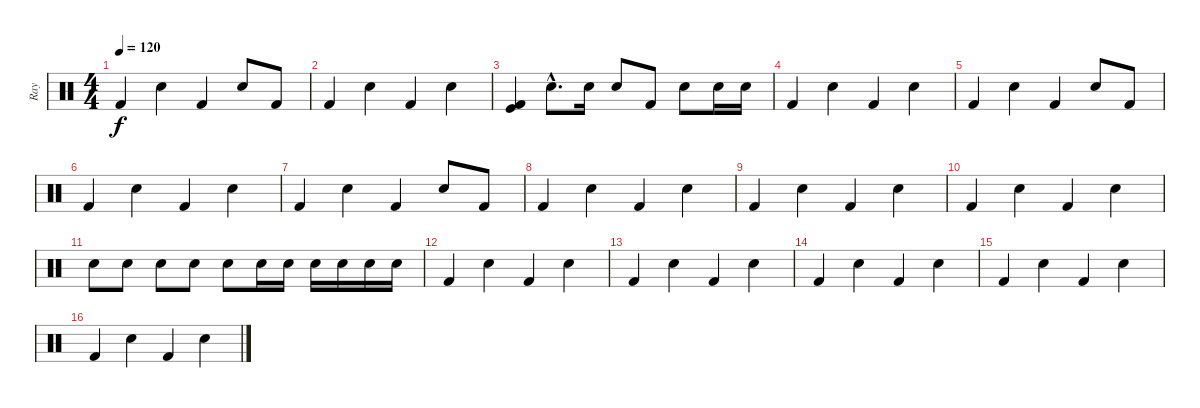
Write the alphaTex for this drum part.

\track ("Ray" "Ray") {instrument percussion}
\staff {score}
\articulation defaults
\ts (4 4)
\tempo 120
\clef neutral
\ks c "Kick (hit) 2".4{dy f} "Snare (hit) 2".4 "Kick (hit) 2".4 "Snare (hit) 2".8 "Kick (hit) 2".8
|
"Kick (hit) 2".4 "Snare (hit) 2".4 "Kick (hit) 2".4 "Snare (hit) 2".4 |
("Kick (hit) 2" "Kick (hit)").4 "Snare (hit) 2"{hac}.8{d} "Snare (hit) 2".16 "Snare (hit) 2".8 "Kick (hit) 2".8 "Snare (hit) 2".8 "Snare (hit) 2".16 "Snare (hit) 2".16 |
"Kick (hit) 2".4 "Snare (hit) 2".4 "Kick (hit) 2".4 "Snare (hit) 2".4 |
"Kick (hit) 2".4 "Snare (hit) 2".4 "Kick (hit) 2".4 "Snare (hit) 2".8 "Kick (hit) 2".8 |
"Kick (hit) 2".4 "Snare (hit) 2".4 "Kick (hit) 2".4 "Snare (hit) 2".4 |
"Kick (hit) 2".4 "Snare (hit) 2".4 "Kick (hit) 2".4 "Snare (hit) 2".8 "Kick (hit) 2".8 |
"Kick (hit) 2".4 "Snare (hit) 2".4 "Kick (hit) 2".4 "Snare (hit) 2".4 |
"Kick (hit) 2".4 "Snare (hit) 2".4 "Kick (hit) 2".4 "Snare (hit) 2".4 |
"Kick (hit) 2".4 "Snare (hit) 2".4 "Kick (hit) 2".4 "Snare (hit) 2".4 |
"Snare (hit) 2".8 "Snare (hit) 2".8 "Snare (hit) 2".8 "Snare (hit) 2".8 "Snare (hit) 2".8 "Snare (hit) 2".16 "Snare (hit) 2".16 "Snare (hit) 2".16 "Snare (hit) 2".16 "Snare (hit) 2".16 "Snare (hit) 2".16 |
"Kick (hit) 2".4 "Snare (hit) 2".4 "Kick (hit) 2".4 "Snare (hit) 2".4 |
"Kick (hit) 2".4 "Snare (hit) 2".4 "Kick (hit) 2".4 "Snare (hit) 2".4 |
"Kick (hit) 2".4 "Snare (hit) 2".4 "Kick (hit) 2".4 "Snare (hit) 2".4 |
"Kick (hit) 2".4 "Snare (hit) 2".4 "Kick (hit) 2".4 "Snare (hit) 2".4 |
"Kick (hit) 2".4 "Snare (hit) 2".4 "Kick (hit) 2".4 "Snare (hit) 2".4
